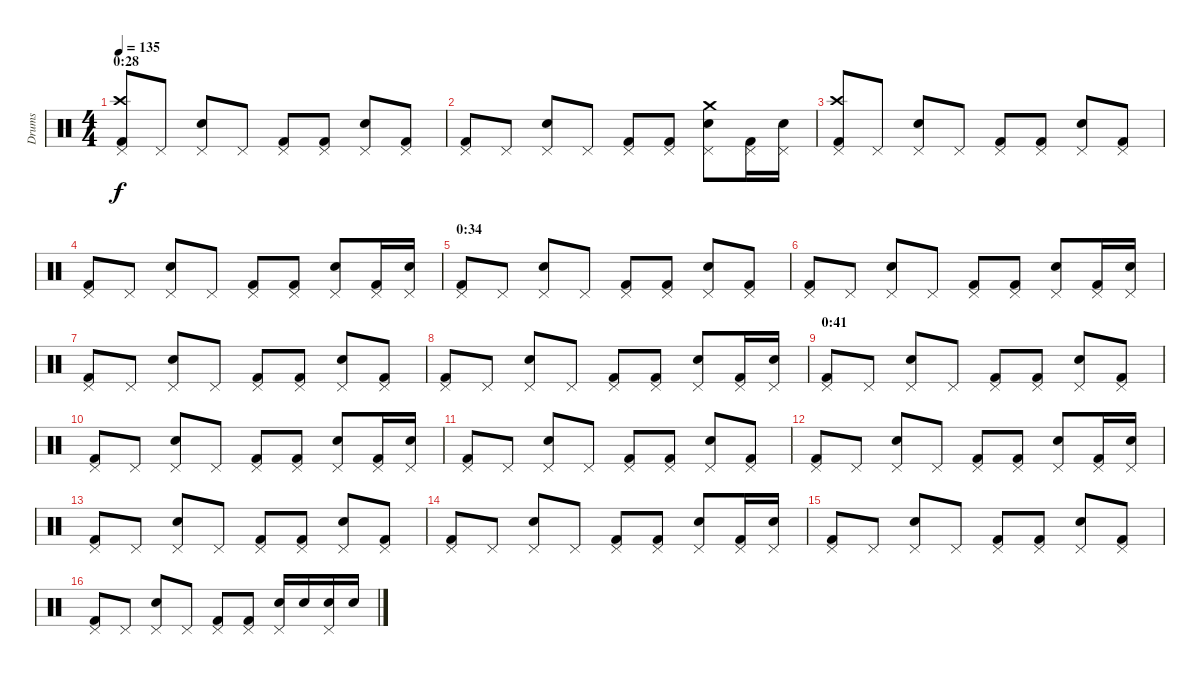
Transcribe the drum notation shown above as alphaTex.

\track ("Drums" "Drums") {instrument percussion}
\staff {score}
\articulation defaults
\ts (4 4)
\section ("" "0:28")
\tempo 135
\clef neutral
\ks c
("Pedal Hi-Hat (hit)" "Crash high (hit)" "Kick (hit) 2").8{dy f} "Pedal Hi-Hat (hit)".8 ("Pedal Hi-Hat (hit)" "Snare (hit) 2").8 "Pedal Hi-Hat (hit)".8 ("Pedal Hi-Hat (hit)" "Kick (hit) 2").8 ("Pedal Hi-Hat (hit)" "Kick (hit) 2").8 ("Pedal Hi-Hat (hit)" "Snare (hit) 2").8 ("Pedal Hi-Hat (hit)" "Kick (hit) 2").8 |
("Pedal Hi-Hat (hit)" "Kick (hit) 2").8 "Pedal Hi-Hat (hit)".8 ("Pedal Hi-Hat (hit)" "Snare (hit) 2").8 "Pedal Hi-Hat (hit)".8 ("Pedal Hi-Hat (hit)" "Kick (hit) 2").8 ("Pedal Hi-Hat (hit)" "Kick (hit) 2").8 ("Pedal Hi-Hat (hit)" "Crash medium (hit)" "Snare (hit) 2").8 ("Pedal Hi-Hat (hit)" "Kick (hit) 2").16 ("Pedal Hi-Hat (hit)" "Snare (hit) 2").16 |
("Pedal Hi-Hat (hit)" "Crash high (hit)" "Kick (hit) 2").8 "Pedal Hi-Hat (hit)".8 ("Pedal Hi-Hat (hit)" "Snare (hit) 2").8 "Pedal Hi-Hat (hit)".8 ("Pedal Hi-Hat (hit)" "Kick (hit) 2").8 ("Pedal Hi-Hat (hit)" "Kick (hit) 2").8 ("Pedal Hi-Hat (hit)" "Snare (hit) 2").8 ("Pedal Hi-Hat (hit)" "Kick (hit) 2").8 |
("Pedal Hi-Hat (hit)" "Kick (hit) 2").8 "Pedal Hi-Hat (hit)".8 ("Pedal Hi-Hat (hit)" "Snare (hit) 2").8 "Pedal Hi-Hat (hit)".8 ("Pedal Hi-Hat (hit)" "Kick (hit) 2").8 ("Pedal Hi-Hat (hit)" "Kick (hit) 2").8 ("Pedal Hi-Hat (hit)" "Snare (hit) 2").8 ("Pedal Hi-Hat (hit)" "Kick (hit) 2").16 ("Pedal Hi-Hat (hit)" "Snare (hit) 2").16 |
\section ("" "0:34")
("Pedal Hi-Hat (hit)" "Kick (hit) 2").8 "Pedal Hi-Hat (hit)".8 ("Pedal Hi-Hat (hit)" "Snare (hit) 2").8 "Pedal Hi-Hat (hit)".8 ("Pedal Hi-Hat (hit)" "Kick (hit) 2").8 ("Pedal Hi-Hat (hit)" "Kick (hit) 2").8 ("Pedal Hi-Hat (hit)" "Snare (hit) 2").8 ("Pedal Hi-Hat (hit)" "Kick (hit) 2").8 |
("Pedal Hi-Hat (hit)" "Kick (hit) 2").8 "Pedal Hi-Hat (hit)".8 ("Pedal Hi-Hat (hit)" "Snare (hit) 2").8 "Pedal Hi-Hat (hit)".8 ("Pedal Hi-Hat (hit)" "Kick (hit) 2").8 ("Pedal Hi-Hat (hit)" "Kick (hit) 2").8 ("Pedal Hi-Hat (hit)" "Snare (hit) 2").8 ("Pedal Hi-Hat (hit)" "Kick (hit) 2").16 ("Pedal Hi-Hat (hit)" "Snare (hit) 2").16 |
("Pedal Hi-Hat (hit)" "Kick (hit) 2").8 "Pedal Hi-Hat (hit)".8 ("Pedal Hi-Hat (hit)" "Snare (hit) 2").8 "Pedal Hi-Hat (hit)".8 ("Pedal Hi-Hat (hit)" "Kick (hit) 2").8 ("Pedal Hi-Hat (hit)" "Kick (hit) 2").8 ("Pedal Hi-Hat (hit)" "Snare (hit) 2").8 ("Pedal Hi-Hat (hit)" "Kick (hit) 2").8 |
("Pedal Hi-Hat (hit)" "Kick (hit) 2").8 "Pedal Hi-Hat (hit)".8 ("Pedal Hi-Hat (hit)" "Snare (hit) 2").8 "Pedal Hi-Hat (hit)".8 ("Pedal Hi-Hat (hit)" "Kick (hit) 2").8 ("Pedal Hi-Hat (hit)" "Kick (hit) 2").8 ("Pedal Hi-Hat (hit)" "Snare (hit) 2").8 ("Pedal Hi-Hat (hit)" "Kick (hit) 2").16 ("Pedal Hi-Hat (hit)" "Snare (hit) 2").16 |
\section ("" "0:41")
("Pedal Hi-Hat (hit)" "Kick (hit) 2").8 "Pedal Hi-Hat (hit)".8 ("Pedal Hi-Hat (hit)" "Snare (hit) 2").8 "Pedal Hi-Hat (hit)".8 ("Pedal Hi-Hat (hit)" "Kick (hit) 2").8 ("Pedal Hi-Hat (hit)" "Kick (hit) 2").8 ("Pedal Hi-Hat (hit)" "Snare (hit) 2").8 ("Pedal Hi-Hat (hit)" "Kick (hit) 2").8 |
("Pedal Hi-Hat (hit)" "Kick (hit) 2").8 "Pedal Hi-Hat (hit)".8 ("Pedal Hi-Hat (hit)" "Snare (hit) 2").8 "Pedal Hi-Hat (hit)".8 ("Pedal Hi-Hat (hit)" "Kick (hit) 2").8 ("Pedal Hi-Hat (hit)" "Kick (hit) 2").8 ("Pedal Hi-Hat (hit)" "Snare (hit) 2").8 ("Pedal Hi-Hat (hit)" "Kick (hit) 2").16 ("Pedal Hi-Hat (hit)" "Snare (hit) 2").16 |
("Pedal Hi-Hat (hit)" "Kick (hit) 2").8 "Pedal Hi-Hat (hit)".8 ("Pedal Hi-Hat (hit)" "Snare (hit) 2").8 "Pedal Hi-Hat (hit)".8 ("Pedal Hi-Hat (hit)" "Kick (hit) 2").8 ("Pedal Hi-Hat (hit)" "Kick (hit) 2").8 ("Pedal Hi-Hat (hit)" "Snare (hit) 2").8 ("Pedal Hi-Hat (hit)" "Kick (hit) 2").8 |
("Pedal Hi-Hat (hit)" "Kick (hit) 2").8 "Pedal Hi-Hat (hit)".8 ("Pedal Hi-Hat (hit)" "Snare (hit) 2").8 "Pedal Hi-Hat (hit)".8 ("Pedal Hi-Hat (hit)" "Kick (hit) 2").8 ("Pedal Hi-Hat (hit)" "Kick (hit) 2").8 ("Pedal Hi-Hat (hit)" "Snare (hit) 2").8 ("Pedal Hi-Hat (hit)" "Kick (hit) 2").16 ("Pedal Hi-Hat (hit)" "Snare (hit) 2").16 |
("Pedal Hi-Hat (hit)" "Kick (hit) 2").8 "Pedal Hi-Hat (hit)".8 ("Pedal Hi-Hat (hit)" "Snare (hit) 2").8 "Pedal Hi-Hat (hit)".8 ("Pedal Hi-Hat (hit)" "Kick (hit) 2").8 ("Pedal Hi-Hat (hit)" "Kick (hit) 2").8 ("Pedal Hi-Hat (hit)" "Snare (hit) 2").8 ("Pedal Hi-Hat (hit)" "Kick (hit) 2").8 |
("Pedal Hi-Hat (hit)" "Kick (hit) 2").8 "Pedal Hi-Hat (hit)".8 ("Pedal Hi-Hat (hit)" "Snare (hit) 2").8 "Pedal Hi-Hat (hit)".8 ("Pedal Hi-Hat (hit)" "Kick (hit) 2").8 ("Pedal Hi-Hat (hit)" "Kick (hit) 2").8 ("Pedal Hi-Hat (hit)" "Snare (hit) 2").8 ("Pedal Hi-Hat (hit)" "Kick (hit) 2").16 ("Pedal Hi-Hat (hit)" "Snare (hit) 2").16 |
("Pedal Hi-Hat (hit)" "Kick (hit) 2").8 "Pedal Hi-Hat (hit)".8 ("Pedal Hi-Hat (hit)" "Snare (hit) 2").8 "Pedal Hi-Hat (hit)".8 ("Pedal Hi-Hat (hit)" "Kick (hit) 2").8 ("Pedal Hi-Hat (hit)" "Kick (hit) 2").8 ("Pedal Hi-Hat (hit)" "Snare (hit) 2").8 ("Pedal Hi-Hat (hit)" "Kick (hit) 2").8 |
("Pedal Hi-Hat (hit)" "Kick (hit) 2").8 "Pedal Hi-Hat (hit)".8 ("Pedal Hi-Hat (hit)" "Snare (hit) 2").8 "Pedal Hi-Hat (hit)".8 ("Pedal Hi-Hat (hit)" "Kick (hit) 2").8 ("Pedal Hi-Hat (hit)" "Kick (hit) 2").8 ("Pedal Hi-Hat (hit)" "Snare (hit) 2").16 "Snare (hit) 2".16 ("Pedal Hi-Hat (hit)" "Snare (hit) 2").16 "Snare (hit) 2".16
